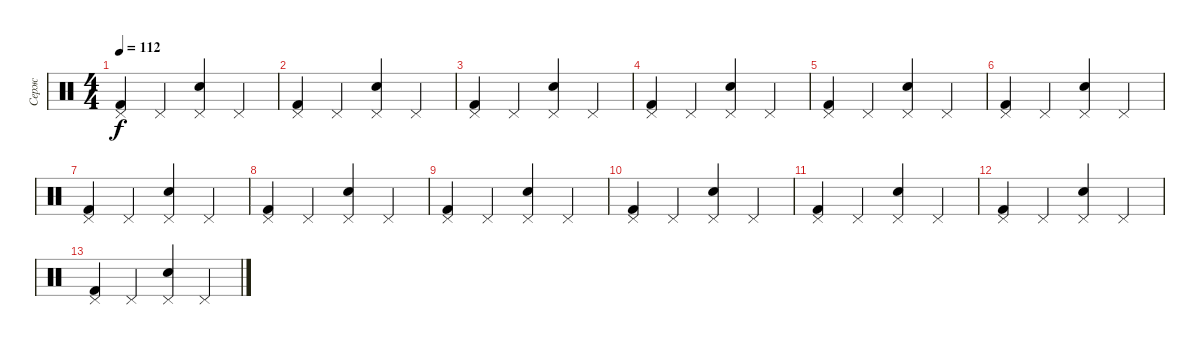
\track ("Серж" "Серж") {instrument percussion}
\staff {score}
\articulation defaults
\ts (4 4)
\tempo 112
\clef neutral
\ks c
("Pedal Hi-Hat (hit)" "Kick (hit) 2").4{dy f} "Pedal Hi-Hat (hit)".4 ("Pedal Hi-Hat (hit)" "Snare (hit) 2").4 "Pedal Hi-Hat (hit)".4 |
("Pedal Hi-Hat (hit)" "Kick (hit) 2").4 "Pedal Hi-Hat (hit)".4 ("Pedal Hi-Hat (hit)" "Snare (hit) 2").4 "Pedal Hi-Hat (hit)".4 |
("Pedal Hi-Hat (hit)" "Kick (hit) 2").4 "Pedal Hi-Hat (hit)".4 ("Pedal Hi-Hat (hit)" "Snare (hit) 2").4 "Pedal Hi-Hat (hit)".4 |
("Pedal Hi-Hat (hit)" "Kick (hit) 2").4 "Pedal Hi-Hat (hit)".4 ("Pedal Hi-Hat (hit)" "Snare (hit) 2").4 "Pedal Hi-Hat (hit)".4 |
("Pedal Hi-Hat (hit)" "Kick (hit) 2").4 "Pedal Hi-Hat (hit)".4 ("Pedal Hi-Hat (hit)" "Snare (hit) 2").4 "Pedal Hi-Hat (hit)".4 |
("Pedal Hi-Hat (hit)" "Kick (hit) 2").4 "Pedal Hi-Hat (hit)".4 ("Pedal Hi-Hat (hit)" "Snare (hit) 2").4 "Pedal Hi-Hat (hit)".4 |
("Pedal Hi-Hat (hit)" "Kick (hit) 2").4 "Pedal Hi-Hat (hit)".4 ("Pedal Hi-Hat (hit)" "Snare (hit) 2").4 "Pedal Hi-Hat (hit)".4 |
("Pedal Hi-Hat (hit)" "Kick (hit) 2").4 "Pedal Hi-Hat (hit)".4 ("Pedal Hi-Hat (hit)" "Snare (hit) 2").4 "Pedal Hi-Hat (hit)".4 |
("Pedal Hi-Hat (hit)" "Kick (hit) 2").4 "Pedal Hi-Hat (hit)".4 ("Pedal Hi-Hat (hit)" "Snare (hit) 2").4 "Pedal Hi-Hat (hit)".4 |
("Pedal Hi-Hat (hit)" "Kick (hit) 2").4 "Pedal Hi-Hat (hit)".4 ("Pedal Hi-Hat (hit)" "Snare (hit) 2").4 "Pedal Hi-Hat (hit)".4 |
("Pedal Hi-Hat (hit)" "Kick (hit) 2").4 "Pedal Hi-Hat (hit)".4 ("Pedal Hi-Hat (hit)" "Snare (hit) 2").4 "Pedal Hi-Hat (hit)".4 |
("Pedal Hi-Hat (hit)" "Kick (hit) 2").4 "Pedal Hi-Hat (hit)".4 ("Pedal Hi-Hat (hit)" "Snare (hit) 2").4 "Pedal Hi-Hat (hit)".4 |
("Pedal Hi-Hat (hit)" "Kick (hit) 2").4 "Pedal Hi-Hat (hit)".4 ("Pedal Hi-Hat (hit)" "Snare (hit) 2").4 "Pedal Hi-Hat (hit)".4
